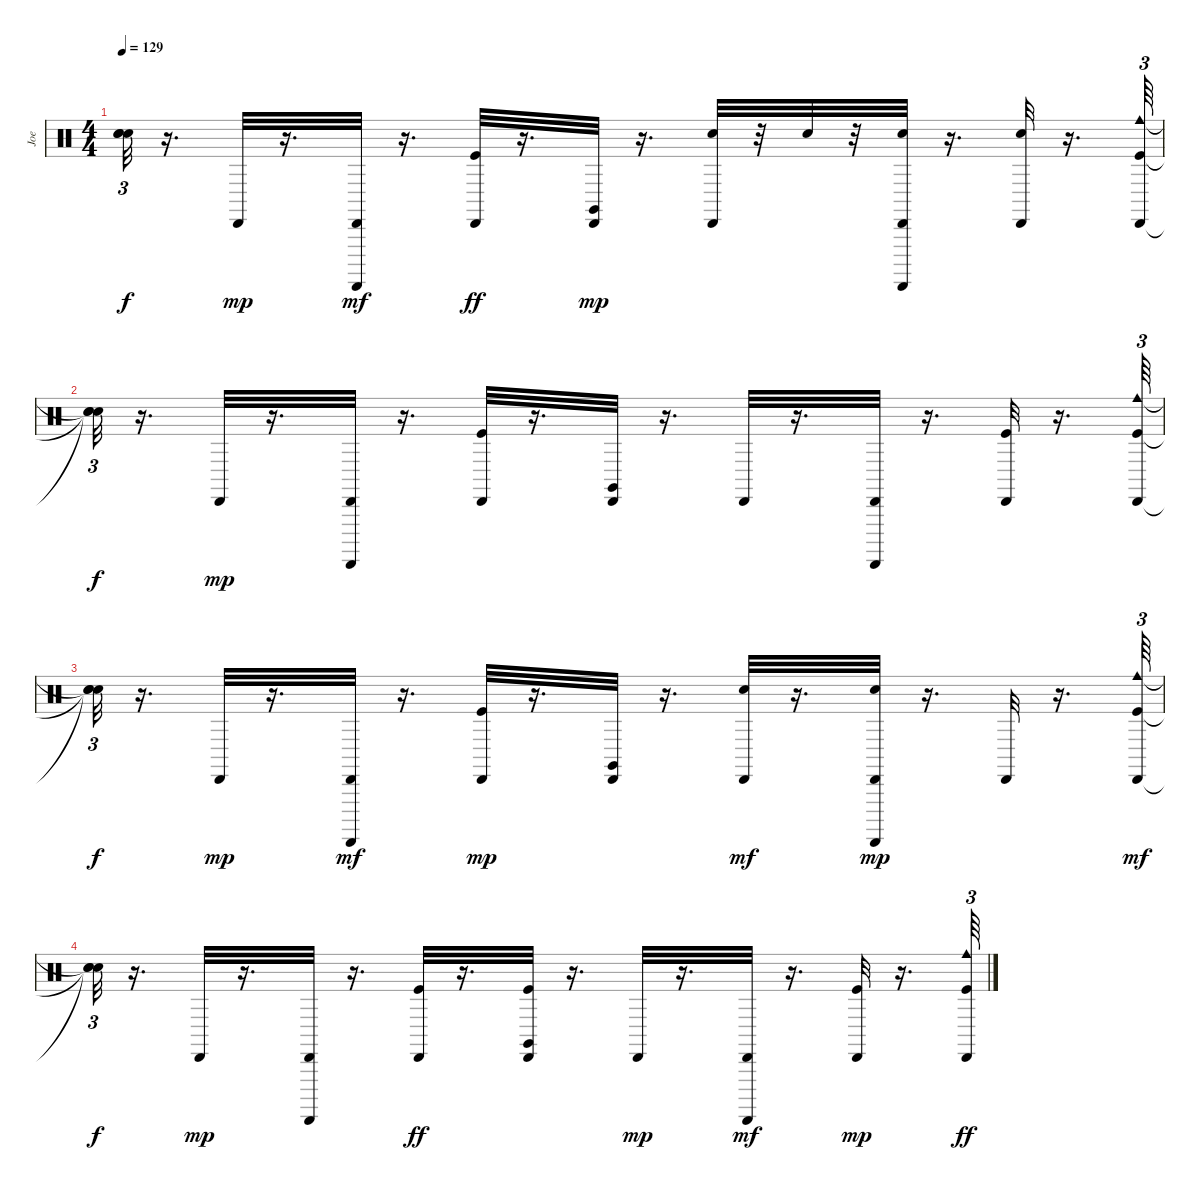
\track ("Joe" "Joe") {instrument percussion}
\staff {score}
\articulation defaults
\ts (4 4)
\tempo 129
\clef neutral
\ks c
("Snare (hit)"{t} "Snare (hit)"{t} "Snare (hit)"{t}).32{tu (3 2) dy f} r.16{d} "Cabasa (hit)".32{dy mp} r.16{d} ("Cabasa (hit)" "Guiro (scrap-return)").32{dy mf} r.16{d} ("Cabasa (hit)" "Kick (hit)").32{dy ff} r.16{d} ("Cabasa (hit)" "Claves (hit)").32{dy mp} r.16{d} ("Cabasa (hit)" "Snare (hit) 2").32 r.32 "Snare (hit) 2".32 r.32 ("Guiro (scrap-return)" "Cabasa (hit)" "Snare (hit) 2").32 r.16{d} ("Snare (hit) 2" "Cabasa (hit)").32 r.16{d} ("Cowbell medium (hit)" "Kick (hit)" "Cabasa (hit)").64{tu (3 2)} |
("Snare (hit)"{t} "Snare (hit)"{t} "Snare (hit)"{t}).32{tu (3 2) dy f} r.16{d} "Cabasa (hit)".32{dy mp} r.16{d} ("Guiro (scrap-return)" "Cabasa (hit)").32 r.16{d} ("Kick (hit)" "Cabasa (hit)").32 r.16{d} ("Cabasa (hit)" "Claves (hit)").32 r.16{d} "Cabasa (hit)".32 r.16{d} ("Guiro (scrap-return)" "Cabasa (hit)").32 r.16{d} ("Kick (hit)" "Cabasa (hit)").32 r.16{d} ("Cowbell medium (hit)" "Kick (hit)" "Cabasa (hit)").64{tu (3 2)} |
("Snare (hit)"{t} "Snare (hit)"{t} "Snare (hit)"{t}).32{tu (3 2) dy f} r.16{d} "Cabasa (hit)".32{dy mp} r.16{d} ("Cabasa (hit)" "Guiro (scrap-return)").32{dy mf} r.16{d} ("Kick (hit)" "Cabasa (hit)").32{dy mp} r.16{d} ("Cabasa (hit)" "Claves (hit)").32 r.16{d} ("Cabasa (hit)" "Snare (hit) 2").32{dy mf} r.16{d} ("Guiro (scrap-return)" "Snare (hit) 2" "Cabasa (hit)").32{dy mp} r.16{d} "Cabasa (hit)".32 r.16{d} ("Kick (hit)" "Cabasa (hit)" "Cowbell medium (hit)").64{tu (3 2) dy mf} |
("Snare (hit)"{t} "Snare (hit)"{t} "Snare (hit)"{t}).32{tu (3 2) dy f} r.16{d} "Cabasa (hit)".32{dy mp} r.16{d} ("Cabasa (hit)" "Guiro (scrap-return)").32 r.16{d} ("Cabasa (hit)" "Kick (hit)").32{dy ff} r.16{d} ("Cabasa (hit)" "Kick (hit)" "Claves (hit)").32 r.16{d} "Cabasa (hit)".32{dy mp} r.16{d} ("Cabasa (hit)" "Guiro (scrap-return)").32{dy mf} r.16{d} ("Kick (hit)" "Cabasa (hit)").32{dy mp} r.16{d} ("Cowbell medium (hit)" "Cabasa (hit)" "Kick (hit)").64{tu (3 2) dy ff}
